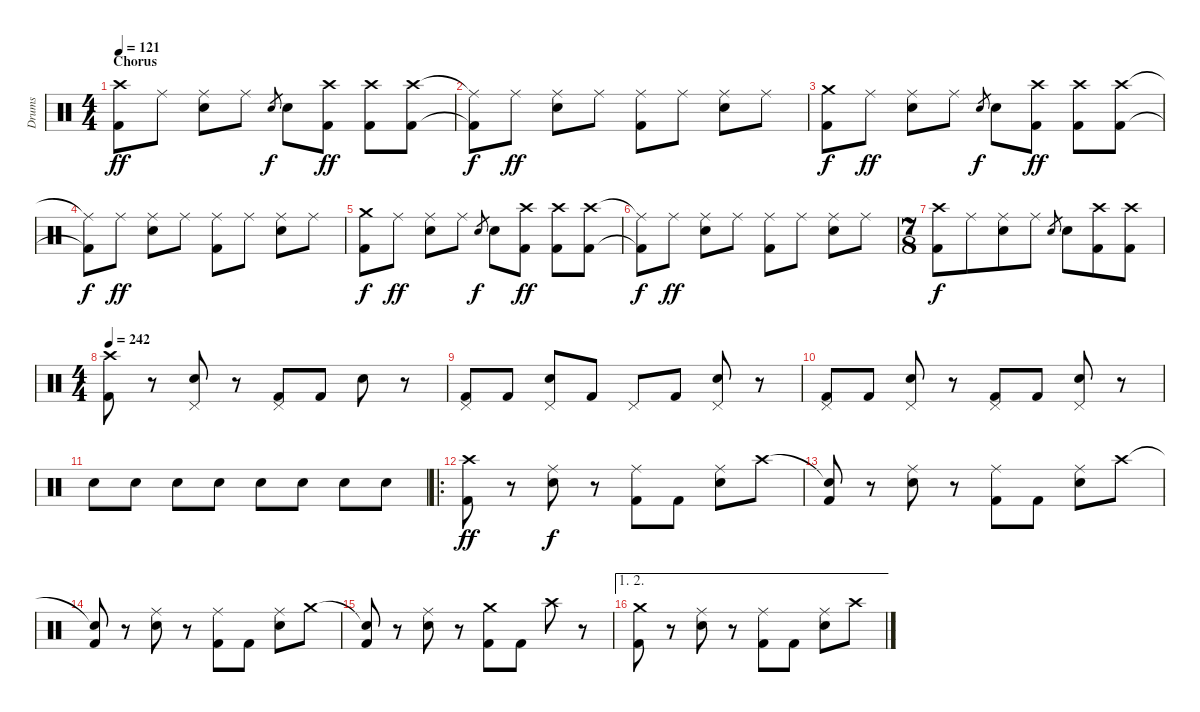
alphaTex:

\track ("Drums" "Drums") {instrument percussion}
\staff {score}
\articulation defaults
\ts (4 4)
\section ("" "Chorus")
\tempo 121
\clef neutral
\ks c
("Crash high (hit)" "Kick (hit) 2").8{dy ff} "Ride (middle)".8 ("Ride (middle)" "Electric Snare (hit)").8 "Ride (middle)".8 "Electric Snare (hit)".8{gr dy f} "Electric Snare (hit)".8 ("Crash high (hit)" "Kick (hit) 2").8{dy ff} ("Crash high (hit)" "Kick (hit) 2").8 ("Crash high (hit)" "Kick (hit) 2").8 |
("Ride (middle)"{t} "Kick (hit) 2"{t}).8{dy f} "Ride (middle)".8{dy ff} ("Ride (middle)" "Electric Snare (hit)").8 "Ride (middle)".8 ("Ride (middle)" "Kick (hit) 2").8 "Ride (middle)".8 ("Ride (middle)" "Electric Snare (hit)").8 "Ride (middle)".8 |
("Crash medium (hit)" "Kick (hit) 2").8{dy f} "Ride (middle)".8{dy ff} ("Ride (middle)" "Electric Snare (hit)").8 "Ride (middle)".8 "Electric Snare (hit)".8{gr dy f} "Electric Snare (hit)".8 ("Crash high (hit)" "Kick (hit) 2").8{dy ff} ("Crash high (hit)" "Kick (hit) 2").8 ("Crash high (hit)" "Kick (hit) 2").8 |
("Ride (middle)"{t} "Kick (hit) 2"{t}).8{dy f} "Ride (middle)".8{dy ff} ("Ride (middle)" "Electric Snare (hit)").8 "Ride (middle)".8 ("Ride (middle)" "Kick (hit) 2").8 "Ride (middle)".8 ("Ride (middle)" "Electric Snare (hit)").8 "Ride (middle)".8 |
("Crash medium (hit)" "Kick (hit) 2").8{dy f} "Ride (middle)".8{dy ff} ("Ride (middle)" "Electric Snare (hit)").8 "Ride (middle)".8 "Electric Snare (hit)".8{gr dy f} "Electric Snare (hit)".8 ("Crash high (hit)" "Kick (hit) 2").8{dy ff} ("Crash high (hit)" "Kick (hit) 2").8 ("Crash high (hit)" "Kick (hit) 2").8 |
("Ride (middle)"{t} "Kick (hit) 2"{t}).8{dy f} "Ride (middle)".8{dy ff} ("Ride (middle)" "Electric Snare (hit)").8 "Ride (middle)".8 ("Ride (middle)" "Kick (hit) 2").8 "Ride (middle)".8 ("Ride (middle)" "Electric Snare (hit)").8 "Ride (middle)".8 |
\ts (7 8)
("Crash high (hit)" "Kick (hit) 2").8{dy f} "Ride (middle)".8 ("Ride (middle)" "Electric Snare (hit)").8 "Ride (middle)".8 "Electric Snare (hit)".8{gr} "Electric Snare (hit)".8 ("Crash high (hit)" "Kick (hit) 2").8 ("Crash high (hit)" "Kick (hit) 2").8 |
\ts (4 4)
\tempo 242
("Crash high (hit)" "Kick (hit) 2").8 r.8 ("Pedal Hi-Hat (hit)" "Electric Snare (hit)").8 r.8 ("Pedal Hi-Hat (hit)" "Kick (hit) 2").8 "Kick (hit) 2".8 "Electric Snare (hit)".8 r.8 |
("Pedal Hi-Hat (hit)" "Kick (hit) 2").8 "Kick (hit) 2".8 ("Pedal Hi-Hat (hit)" "Electric Snare (hit)").8 "Kick (hit) 2".8 "Pedal Hi-Hat (hit)".8 "Kick (hit) 2".8 ("Pedal Hi-Hat (hit)" "Electric Snare (hit)").8 r.8 |
("Pedal Hi-Hat (hit)" "Kick (hit) 2").8 "Kick (hit) 2".8 ("Pedal Hi-Hat (hit)" "Electric Snare (hit)").8 r.8 ("Pedal Hi-Hat (hit)" "Kick (hit) 2").8 "Kick (hit) 2".8 ("Pedal Hi-Hat (hit)" "Electric Snare (hit)").8 r.8 |
"Electric Snare (hit)".8 "Electric Snare (hit)".8 "Electric Snare (hit)".8 "Electric Snare (hit)".8 "Electric Snare (hit)".8 "Electric Snare (hit)".8 "Electric Snare (hit)".8 "Electric Snare (hit)".8 |
\ro
("Crash high (hit)" "Kick (hit) 2").8{dy ff} r.8 ("Ride (middle)" "Electric Snare (hit)").8{dy f} r.8 ("Ride (middle)" "Kick (hit) 2").8 "Kick (hit) 2".8 ("Ride (middle)" "Electric Snare (hit)").8 "Crash high (hit)".8 |
("Snare (hit)"{t} "Kick (hit) 2").8 r.8 ("Ride (middle)" "Electric Snare (hit)").8 r.8 ("Ride (middle)" "Kick (hit) 2").8 "Kick (hit) 2".8 ("Ride (middle)" "Electric Snare (hit)").8 "Crash high (hit)".8 |
("Snare (hit)"{t} "Kick (hit) 2").8 r.8 ("Ride (middle)" "Electric Snare (hit)").8 r.8 ("Ride (middle)" "Kick (hit) 2").8 "Kick (hit) 2".8 ("Ride (middle)" "Electric Snare (hit)").8 "Crash medium (hit)".8 |
("Snare (hit)"{t} "Kick (hit) 2").8 r.8 ("Ride (middle)" "Electric Snare (hit)").8 r.8 ("Crash medium (hit)" "Kick (hit) 2").8 "Kick (hit) 2".8 "Crash high (hit)".8 r.8 |
\ae (1 2)
("Crash medium (hit)" "Kick (hit) 2").8 r.8 ("Ride (middle)" "Electric Snare (hit)").8 r.8 ("Ride (middle)" "Kick (hit) 2").8 "Kick (hit) 2".8 ("Ride (middle)" "Electric Snare (hit)").8 "Crash high (hit)".8
